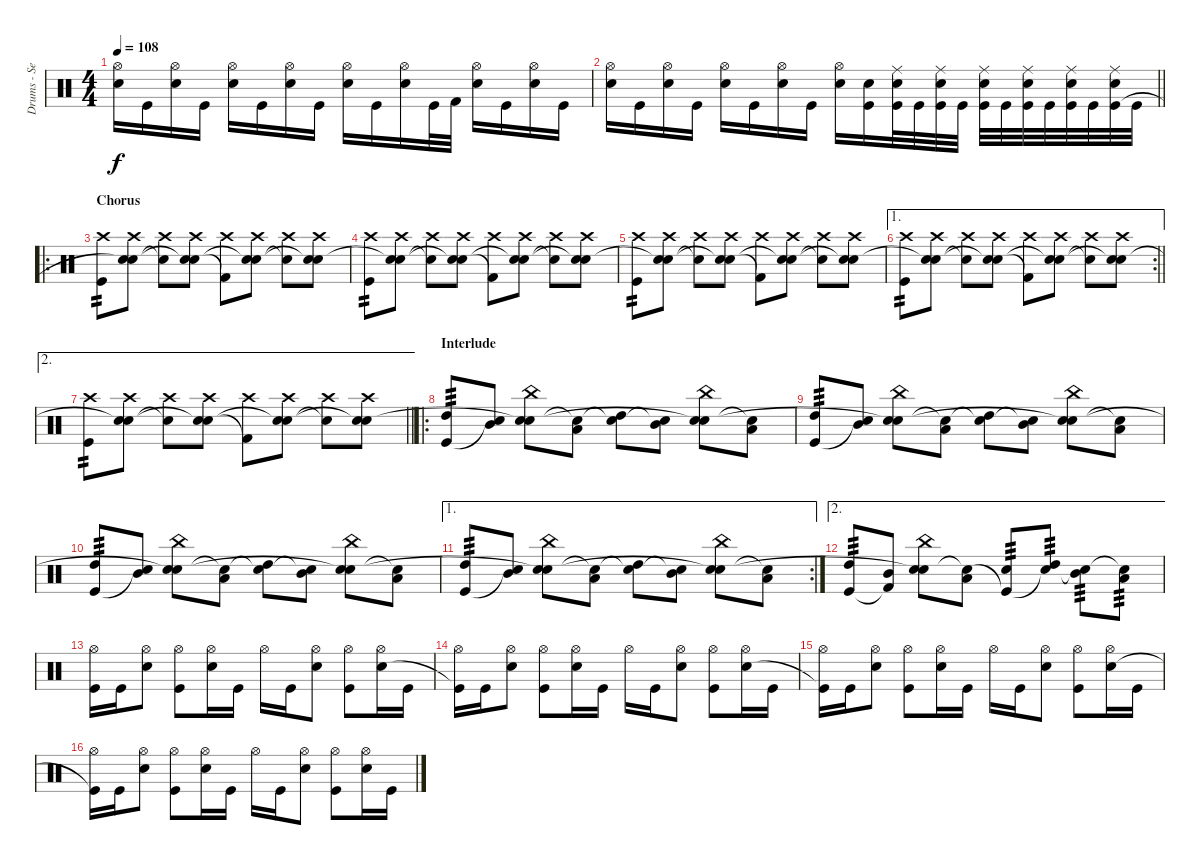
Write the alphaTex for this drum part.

\track ("Drums - Sebastian Heldt" "Drums - Se") {instrument percussion}
\staff {score}
\articulation defaults
\ts (4 4)
\tempo 108
\clef neutral
\ks c
("Hi-Hat (open)" "Electric Snare (hit)").16{dy f} "Kick (hit)".16 ("Hi-Hat (open)" "Electric Snare (hit)").16 "Kick (hit)".16 ("Hi-Hat (open)" "Electric Snare (hit)").16 "Kick (hit)".16 ("Hi-Hat (open)" "Electric Snare (hit)").16 "Kick (hit)".16 ("Hi-Hat (open)" "Electric Snare (hit)").16 "Kick (hit)".16 ("Hi-Hat (open)" "Electric Snare (hit)").16 "Kick (hit)".32 "Kick (hit) 2".32 ("Hi-Hat (open)" "Electric Snare (hit)").16 "Kick (hit)".16 ("Hi-Hat (open)" "Electric Snare (hit)").16 "Kick (hit)".16 |
\barLineRight lightlight
("Hi-Hat (open)" "Electric Snare (hit)").16 "Kick (hit)".16 ("Hi-Hat (open)" "Electric Snare (hit)").16 "Kick (hit)".16 ("Hi-Hat (open)" "Electric Snare (hit)").16 "Kick (hit)".16 ("Hi-Hat (open)" "Electric Snare (hit)").16 "Kick (hit)".16 ("Hi-Hat (open)" "Electric Snare (hit)").16 ("Electric Snare (hit)" "Kick (hit)").16 ("Ride (middle)" "Electric Snare (hit)" "Kick (hit)").32 "Kick (hit)".32 ("Ride (middle)" "Electric Snare (hit)" "Kick (hit)").32 "Kick (hit)".32 ("Ride (middle)" "Electric Snare (hit)" "Kick (hit)").32 "Kick (hit)".32 ("Ride (middle)" "Electric Snare (hit)" "Kick (hit)").32 "Kick (hit)".32 ("Ride (middle)" "Electric Snare (hit)" "Kick (hit)").32 "Kick (hit)".32 ("Ride (middle)" "Electric Snare (hit)" "Kick (hit)").32 "Kick (hit)".32 |
\ro
\section ("" "Chorus")
("Crash high (hit)" "Kick (hit)").8{tp 2} ("Crash high (hit)" "Electric Snare (hit)" "Snare (hit)"{t}).8 ("Crash high (hit)" "Snare (hit)"{t}).8 ("Crash high (hit)" "Electric Snare (hit)" "Snare (hit)"{t}).8 ("Crash high (hit)" "Kick (hit) 2"{t}).8 ("Crash high (hit)" "Electric Snare (hit)" "Snare (hit)"{t}).8 ("Crash high (hit)" "Snare (hit)"{t}).8 ("Crash high (hit)" "Electric Snare (hit)" "Snare (hit)"{t}).8 |
("Crash high (hit)" "Kick (hit)").8{tp 2} ("Crash high (hit)" "Electric Snare (hit)" "Snare (hit)"{t}).8 ("Crash high (hit)" "Snare (hit)"{t}).8 ("Crash high (hit)" "Electric Snare (hit)" "Snare (hit)"{t}).8 ("Crash high (hit)" "Kick (hit) 2"{t}).8 ("Crash high (hit)" "Electric Snare (hit)" "Snare (hit)"{t}).8 ("Crash high (hit)" "Snare (hit)"{t}).8 ("Crash high (hit)" "Electric Snare (hit)" "Snare (hit)"{t}).8 |
("Crash high (hit)" "Kick (hit)").8{tp 2} ("Crash high (hit)" "Electric Snare (hit)" "Snare (hit)"{t}).8 ("Crash high (hit)" "Snare (hit)"{t}).8 ("Crash high (hit)" "Electric Snare (hit)" "Snare (hit)"{t}).8 ("Crash high (hit)" "Kick (hit) 2"{t}).8 ("Crash high (hit)" "Electric Snare (hit)" "Snare (hit)"{t}).8 ("Crash high (hit)" "Snare (hit)"{t}).8 ("Crash high (hit)" "Electric Snare (hit)" "Snare (hit)"{t}).8 |
\ae 1
\rc 2
\barLineRight lightlight
("Crash high (hit)" "Kick (hit)").8{tp 2} ("Crash high (hit)" "Electric Snare (hit)" "Snare (hit)"{t}).8 ("Crash high (hit)" "Snare (hit)"{t}).8 ("Crash high (hit)" "Electric Snare (hit)" "Snare (hit)"{t}).8 ("Crash high (hit)" "Kick (hit) 2"{t}).8 ("Crash high (hit)" "Electric Snare (hit)" "Snare (hit)"{t}).8 ("Crash high (hit)" "Snare (hit)"{t}).8 ("Crash high (hit)" "Electric Snare (hit)" "Snare (hit)"{t}).8 |
\ae 2
\barLineRight lightlight
("Crash high (hit)" "Kick (hit)").8{tp 2} ("Crash high (hit)" "Electric Snare (hit)" "Snare (hit)"{t}).8 ("Crash high (hit)" "Snare (hit)"{t}).8 ("Crash high (hit)" "Electric Snare (hit)" "Snare (hit)"{t}).8 ("Crash high (hit)" "Kick (hit) 2"{t}).8 ("Crash high (hit)" "Electric Snare (hit)" "Snare (hit)"{t}).8 ("Crash high (hit)" "Snare (hit)"{t}).8 ("Crash high (hit)" "Electric Snare (hit)" "Snare (hit)"{t}).8 |
\ro
\section ("" "Interlude")
("High Tom (hit)" "Kick (hit)").8{tp 3} ("Mid Tom (hit)" "Snare (hit)"{t}).8 ("China (hit)" "Electric Snare (hit)" "Snare (hit)"{t}).8 ("Low Tom (hit)" "Snare (hit)"{t}).8 ("High Tom (hit)" "Snare (hit)"{t}).8 ("Mid Tom (hit)" "Snare (hit)"{t}).8 ("China (hit)" "Electric Snare (hit)" "Snare (hit)"{t}).8 ("Low Tom (hit)" "Snare (hit)"{t}).8 |
("High Tom (hit)" "Kick (hit)").8{tp 3} ("Mid Tom (hit)" "Snare (hit)"{t}).8 ("China (hit)" "Electric Snare (hit)" "Snare (hit)"{t}).8 ("Low Tom (hit)" "Snare (hit)"{t}).8 ("High Tom (hit)" "Snare (hit)"{t}).8 ("Mid Tom (hit)" "Snare (hit)"{t}).8 ("China (hit)" "Electric Snare (hit)" "Snare (hit)"{t}).8 ("Low Tom (hit)" "Snare (hit)"{t}).8 |
("High Tom (hit)" "Kick (hit)").8{tp 3} ("Mid Tom (hit)" "Snare (hit)"{t}).8 ("China (hit)" "Electric Snare (hit)" "Snare (hit)"{t}).8 ("Low Tom (hit)" "Snare (hit)"{t}).8 ("High Tom (hit)" "Snare (hit)"{t}).8 ("Mid Tom (hit)" "Snare (hit)"{t}).8 ("China (hit)" "Electric Snare (hit)" "Snare (hit)"{t}).8 ("Low Tom (hit)" "Snare (hit)"{t}).8 |
\ae 1
\rc 2
("High Tom (hit)" "Kick (hit)").8{tp 3} ("Mid Tom (hit)" "Snare (hit)"{t}).8 ("China (hit)" "Electric Snare (hit)" "Snare (hit)"{t}).8 ("Low Tom (hit)" "Snare (hit)"{t}).8 ("High Tom (hit)" "Snare (hit)"{t}).8 ("Mid Tom (hit)" "Snare (hit)"{t}).8 ("China (hit)" "Electric Snare (hit)" "Snare (hit)"{t}).8 ("Low Tom (hit)" "Snare (hit)"{t}).8 |
\ae 2
("High Tom (hit)" "Kick (hit)").8{tp 3} ("Mid Tom (hit)" "Kick (hit) 2"{t}).8 ("China (hit)" "Electric Snare (hit)" "Snare (hit)"{t}).8 ("Low Tom (hit)" "Snare (hit)"{t}).8 ("Electric Snare (hit)" "Kick (hit)"{t}).8{tp 3} ("High Tom (hit)" "Snare (hit)"{t}).8{tp 3} ("Mid Tom (hit)" "Snare (hit)"{t}).8{tp 3} ("Low Tom (hit)" "Snare (hit)"{t}).8{tp 3} |
("Hi-Hat (open)" "Kick (hit)").16 "Kick (hit)".16 ("Hi-Hat (open)" "Electric Snare (hit)").8 ("Hi-Hat (open)" "Kick (hit)").8 ("Hi-Hat (open)" "Electric Snare (hit)").16 "Kick (hit)".16 "Hi-Hat (open)".16 "Kick (hit)".16 ("Hi-Hat (open)" "Electric Snare (hit)").8 ("Hi-Hat (open)" "Kick (hit)").8 ("Hi-Hat (open)" "Electric Snare (hit)").16 "Kick (hit)".16 |
("Hi-Hat (open)" "Kick (hit)"{t}).16 "Kick (hit)".16 ("Hi-Hat (open)" "Electric Snare (hit)").8 ("Hi-Hat (open)" "Kick (hit)").8 ("Hi-Hat (open)" "Electric Snare (hit)").16 "Kick (hit)".16 "Hi-Hat (open)".16 "Kick (hit)".16 ("Hi-Hat (open)" "Electric Snare (hit)").8 ("Hi-Hat (open)" "Kick (hit)").8 ("Hi-Hat (open)" "Electric Snare (hit)").16 "Kick (hit)".16 |
("Hi-Hat (open)" "Kick (hit)"{t}).16 "Kick (hit)".16 ("Hi-Hat (open)" "Electric Snare (hit)").8 ("Hi-Hat (open)" "Kick (hit)").8 ("Hi-Hat (open)" "Electric Snare (hit)").16 "Kick (hit)".16 "Hi-Hat (open)".16 "Kick (hit)".16 ("Hi-Hat (open)" "Electric Snare (hit)").8 ("Hi-Hat (open)" "Kick (hit)").8 ("Hi-Hat (open)" "Electric Snare (hit)").16 "Kick (hit)".16 |
("Hi-Hat (open)" "Kick (hit)"{t}).16 "Kick (hit)".16 ("Hi-Hat (open)" "Electric Snare (hit)").8 ("Hi-Hat (open)" "Kick (hit)").8 ("Hi-Hat (open)" "Electric Snare (hit)").16 "Kick (hit)".16 "Hi-Hat (open)".16 "Kick (hit)".16 ("Hi-Hat (open)" "Electric Snare (hit)").8 ("Hi-Hat (open)" "Kick (hit)").8 ("Hi-Hat (open)" "Electric Snare (hit)").16 "Kick (hit)".16
